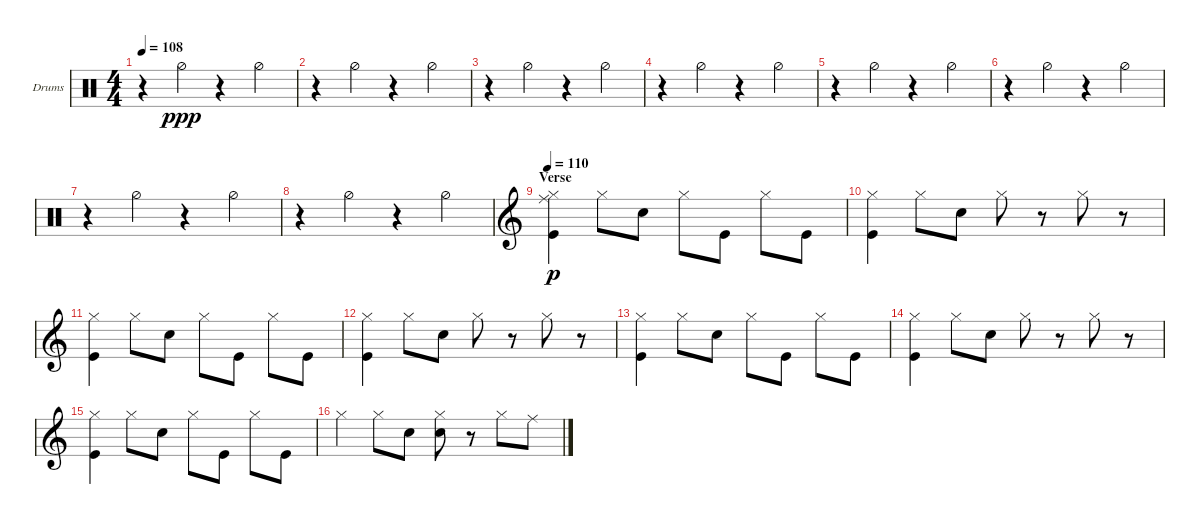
\defaultSystemsLayout 4
\bracketExtendMode groupsimilarinstruments
\firstSystemTrackNameOrientation horizontal
\otherSystemsTrackNameOrientation horizontal
\track ("Quiet Drumkit" "Drums") {instrument percussion}
\staff {score}
\articulation defaults
\ts (4 4)
\tempo 108
\clef neutral
\ks c
r.4{dy ppp} "Hi-Hat (half)".4 r.4 "Hi-Hat (half)".4 |
r.4 "Hi-Hat (half)".4 r.4 "Hi-Hat (half)".4 |
r.4 "Hi-Hat (half)".4 r.4 "Hi-Hat (half)".4 |
r.4 "Hi-Hat (half)".4 r.4 "Hi-Hat (half)".4 |
r.4 "Hi-Hat (half)".4 r.4 "Hi-Hat (half)".4 |
r.4 "Hi-Hat (half)".4 r.4 "Hi-Hat (half)".4 |
r.4 "Hi-Hat (half)".4 r.4 "Hi-Hat (half)".4 |
r.4 "Hi-Hat (half)".4 r.4 "Hi-Hat (half)".4 |
\section ("" "Verse")
\tempo 110
\clef g2
("Hi-Hat (closed)" "Kick (hit)" "Ride (middle)").4{dy p} "Hi-Hat (closed)".8 "Snare (hit) 2".8 "Hi-Hat (closed)".8 "Kick (hit)".8 "Hi-Hat (closed)".8 "Kick (hit)".8 |
("Hi-Hat (closed)" "Kick (hit)").4 "Hi-Hat (closed)".8 "Snare (hit) 2".8 "Hi-Hat (closed)".8 r.8 "Hi-Hat (closed)".8 r.8 |
("Hi-Hat (closed)" "Kick (hit)").4 "Hi-Hat (closed)".8 "Snare (hit) 2".8 "Hi-Hat (closed)".8 "Kick (hit)".8 "Hi-Hat (closed)".8 "Kick (hit)".8 |
("Hi-Hat (closed)" "Kick (hit)").4 "Hi-Hat (closed)".8 "Snare (hit) 2".8 "Hi-Hat (closed)".8 r.8 "Hi-Hat (closed)".8 r.8 |
("Hi-Hat (closed)" "Kick (hit)").4 "Hi-Hat (closed)".8 "Snare (hit) 2".8 "Hi-Hat (closed)".8 "Kick (hit)".8 "Hi-Hat (closed)".8 "Kick (hit)".8 |
("Hi-Hat (closed)" "Kick (hit)").4 "Hi-Hat (closed)".8 "Snare (hit) 2".8 "Hi-Hat (closed)".8 r.8 "Hi-Hat (closed)".8 r.8 |
("Hi-Hat (closed)" "Kick (hit)").4 "Hi-Hat (closed)".8 "Snare (hit) 2".8 "Hi-Hat (closed)".8 "Kick (hit)".8 "Hi-Hat (closed)".8 "Kick (hit)".8 |
"Hi-Hat (closed)".4 "Hi-Hat (closed)".8 "Snare (hit) 2".8 ("Hi-Hat (closed)" "Snare (hit) 2").8 r.8 "Hi-Hat (closed)".8 "Ride (middle)".8
